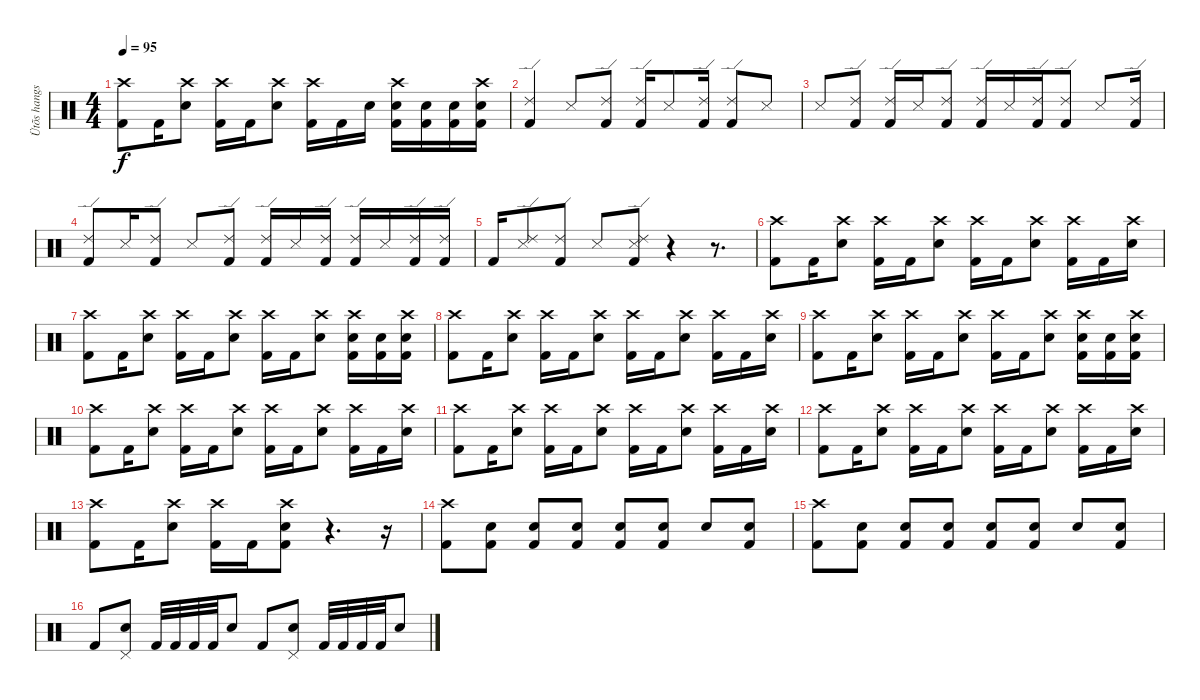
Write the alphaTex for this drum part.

\track ("Ütõs hangszer" "Ütõs hangs") {instrument percussion}
\staff {score}
\articulation defaults
\ts (4 4)
\tempo 95
\clef neutral
\ks c
("Crash high (hit)" "Kick (hit) 2").8{dy f} "Kick (hit) 2".16 ("Crash high (hit)" "Electric Snare (hit)").8 ("Crash high (hit)" "Kick (hit) 2").16 "Kick (hit) 2".16 ("Crash high (hit)" "Electric Snare (hit)").8 ("Crash high (hit)" "Kick (hit) 2").16 "Kick (hit) 2".16 "Electric Snare (hit)".16 ("Crash high (hit)" "Electric Snare (hit)" "Kick (hit) 2").16 ("Electric Snare (hit)" "Kick (hit) 2").16 ("Electric Snare (hit)" "Kick (hit) 2").16 ("Crash high (hit)" "Electric Snare (hit)" "Kick (hit) 2").16 |
("Ride (edge) 2" "Kick (hit) 2").4 "Snare (side stick) 3".8 ("Ride (edge) 2" "Kick (hit) 2").8 ("Ride (edge) 2" "Kick (hit) 2").16 "Snare (side stick) 3".8 ("Ride (edge) 2" "Kick (hit) 2").16 ("Ride (edge) 2" "Kick (hit) 2").8 "Snare (side stick) 3".8 |
"Snare (side stick) 3".8 ("Ride (edge) 2" "Kick (hit) 2").8 ("Ride (edge) 2" "Kick (hit) 2").16 "Snare (side stick) 3".16 ("Ride (edge) 2" "Kick (hit) 2").8 ("Ride (edge) 2" "Kick (hit) 2").16 "Snare (side stick) 3".16 ("Ride (edge) 2" "Kick (hit) 2").16 ("Ride (edge) 2" "Kick (hit) 2").8 "Snare (side stick) 3".8 ("Ride (edge) 2" "Kick (hit) 2").16 |
("Ride (edge) 2" "Kick (hit) 2").8 "Snare (side stick) 3".16 ("Ride (edge) 2" "Kick (hit) 2").8 "Snare (side stick) 3".8 ("Ride (edge) 2" "Kick (hit) 2").8 ("Ride (edge) 2" "Kick (hit) 2").16 "Snare (side stick) 3".16 ("Ride (edge) 2" "Kick (hit) 2").16 ("Ride (edge) 2" "Kick (hit) 2").16 "Snare (side stick) 3".16 ("Ride (edge) 2" "Kick (hit) 2").16 ("Ride (edge) 2" "Kick (hit) 2").16 |
"Kick (hit) 2".16 ("Ride (edge) 2" "Snare (side stick) 3").8 ("Ride (edge) 2" "Kick (hit) 2").8 "Snare (side stick) 3".8 ("Ride (edge) 2" "Snare (side stick) 3" "Kick (hit) 2").8 r.4 r.8{d} |
("Crash high (hit)" "Kick (hit) 2").8 "Kick (hit) 2".16 ("Crash high (hit)" "Electric Snare (hit)").8 ("Crash high (hit)" "Kick (hit) 2").16 "Kick (hit) 2".16 ("Crash high (hit)" "Electric Snare (hit)").8 ("Crash high (hit)" "Kick (hit) 2").16 "Kick (hit) 2".16 ("Crash high (hit)" "Electric Snare (hit)").8 ("Crash high (hit)" "Kick (hit) 2").16 "Kick (hit) 2".16 ("Crash high (hit)" "Electric Snare (hit)").16 |
("Crash high (hit)" "Kick (hit) 2").8 "Kick (hit) 2".16 ("Crash high (hit)" "Electric Snare (hit)").8 ("Crash high (hit)" "Kick (hit) 2").16 "Kick (hit) 2".16 ("Crash high (hit)" "Electric Snare (hit)").8 ("Crash high (hit)" "Kick (hit) 2").16 "Kick (hit) 2".16 ("Crash high (hit)" "Electric Snare (hit)").8 ("Crash high (hit)" "Electric Snare (hit)" "Kick (hit) 2").16 ("Electric Snare (hit)" "Kick (hit) 2").16 ("Crash high (hit)" "Electric Snare (hit)" "Kick (hit) 2").16 |
("Crash high (hit)" "Kick (hit) 2").8 "Kick (hit) 2".16 ("Crash high (hit)" "Electric Snare (hit)").8 ("Crash high (hit)" "Kick (hit) 2").16 "Kick (hit) 2".16 ("Crash high (hit)" "Electric Snare (hit)").8 ("Crash high (hit)" "Kick (hit) 2").16 "Kick (hit) 2".16 ("Crash high (hit)" "Electric Snare (hit)").8 ("Crash high (hit)" "Kick (hit) 2").16 "Kick (hit) 2".16 ("Crash high (hit)" "Electric Snare (hit)").16 |
("Crash high (hit)" "Kick (hit) 2").8 "Kick (hit) 2".16 ("Crash high (hit)" "Electric Snare (hit)").8 ("Crash high (hit)" "Kick (hit) 2").16 "Kick (hit) 2".16 ("Crash high (hit)" "Electric Snare (hit)").8 ("Crash high (hit)" "Kick (hit) 2").16 "Kick (hit) 2".16 ("Crash high (hit)" "Electric Snare (hit)").8 ("Crash high (hit)" "Electric Snare (hit)" "Kick (hit) 2").16 ("Electric Snare (hit)" "Kick (hit) 2").16 ("Crash high (hit)" "Electric Snare (hit)" "Kick (hit) 2").16 |
("Crash high (hit)" "Kick (hit) 2").8 "Kick (hit) 2".16 ("Crash high (hit)" "Electric Snare (hit)").8 ("Crash high (hit)" "Kick (hit) 2").16 "Kick (hit) 2".16 ("Crash high (hit)" "Electric Snare (hit)").8 ("Crash high (hit)" "Kick (hit) 2").16 "Kick (hit) 2".16 ("Crash high (hit)" "Electric Snare (hit)").8 ("Crash high (hit)" "Kick (hit) 2").16 "Kick (hit) 2".16 ("Crash high (hit)" "Electric Snare (hit)").16 |
("Crash high (hit)" "Kick (hit) 2").8 "Kick (hit) 2".16 ("Crash high (hit)" "Electric Snare (hit)").8 ("Crash high (hit)" "Kick (hit) 2").16 "Kick (hit) 2".16 ("Crash high (hit)" "Electric Snare (hit)").8 ("Crash high (hit)" "Kick (hit) 2").16 "Kick (hit) 2".16 ("Crash high (hit)" "Electric Snare (hit)").8 ("Crash high (hit)" "Kick (hit) 2").16 "Kick (hit) 2".16 ("Crash high (hit)" "Electric Snare (hit)").16 |
("Crash high (hit)" "Kick (hit) 2").8 "Kick (hit) 2".16 ("Crash high (hit)" "Electric Snare (hit)").8 ("Crash high (hit)" "Kick (hit) 2").16 "Kick (hit) 2".16 ("Crash high (hit)" "Electric Snare (hit)").8 ("Crash high (hit)" "Kick (hit) 2").16 "Kick (hit) 2".16 ("Crash high (hit)" "Electric Snare (hit)").8 ("Crash high (hit)" "Kick (hit) 2").16 "Kick (hit) 2".16 ("Crash high (hit)" "Electric Snare (hit)").16 |
("Crash high (hit)" "Kick (hit) 2").8 "Kick (hit) 2".16 ("Crash high (hit)" "Electric Snare (hit)").8 ("Crash high (hit)" "Kick (hit) 2").16 "Kick (hit) 2".16 ("Crash high (hit)" "Electric Snare (hit)" "Kick (hit) 2").8 r.4{d} r.16 |
("Crash high (hit)" "Kick (hit) 2").8 ("Electric Snare (hit)" "Kick (hit) 2").8 ("Electric Snare (hit)" "Kick (hit) 2").8 ("Electric Snare (hit)" "Kick (hit) 2").8 ("Electric Snare (hit)" "Kick (hit) 2").8 ("Electric Snare (hit)" "Kick (hit) 2").8 "Electric Snare (hit)".8 ("Electric Snare (hit)" "Kick (hit) 2").8 |
("Crash high (hit)" "Kick (hit) 2").8 ("Electric Snare (hit)" "Kick (hit) 2").8 ("Electric Snare (hit)" "Kick (hit) 2").8 ("Electric Snare (hit)" "Kick (hit) 2").8 ("Electric Snare (hit)" "Kick (hit) 2").8 ("Electric Snare (hit)" "Kick (hit) 2").8 "Electric Snare (hit)".8 ("Electric Snare (hit)" "Kick (hit) 2").8 |
"Kick (hit) 2".8 ("Pedal Hi-Hat (hit)" "Electric Snare (hit)").8 "Kick (hit) 2".32 "Kick (hit) 2".32 "Kick (hit) 2".32 "Kick (hit) 2".32 "Electric Snare (hit)".8 "Kick (hit) 2".8 ("Pedal Hi-Hat (hit)" "Electric Snare (hit)").8 "Kick (hit) 2".32 "Kick (hit) 2".32 "Kick (hit) 2".32 "Kick (hit) 2".32 "Electric Snare (hit)".8
